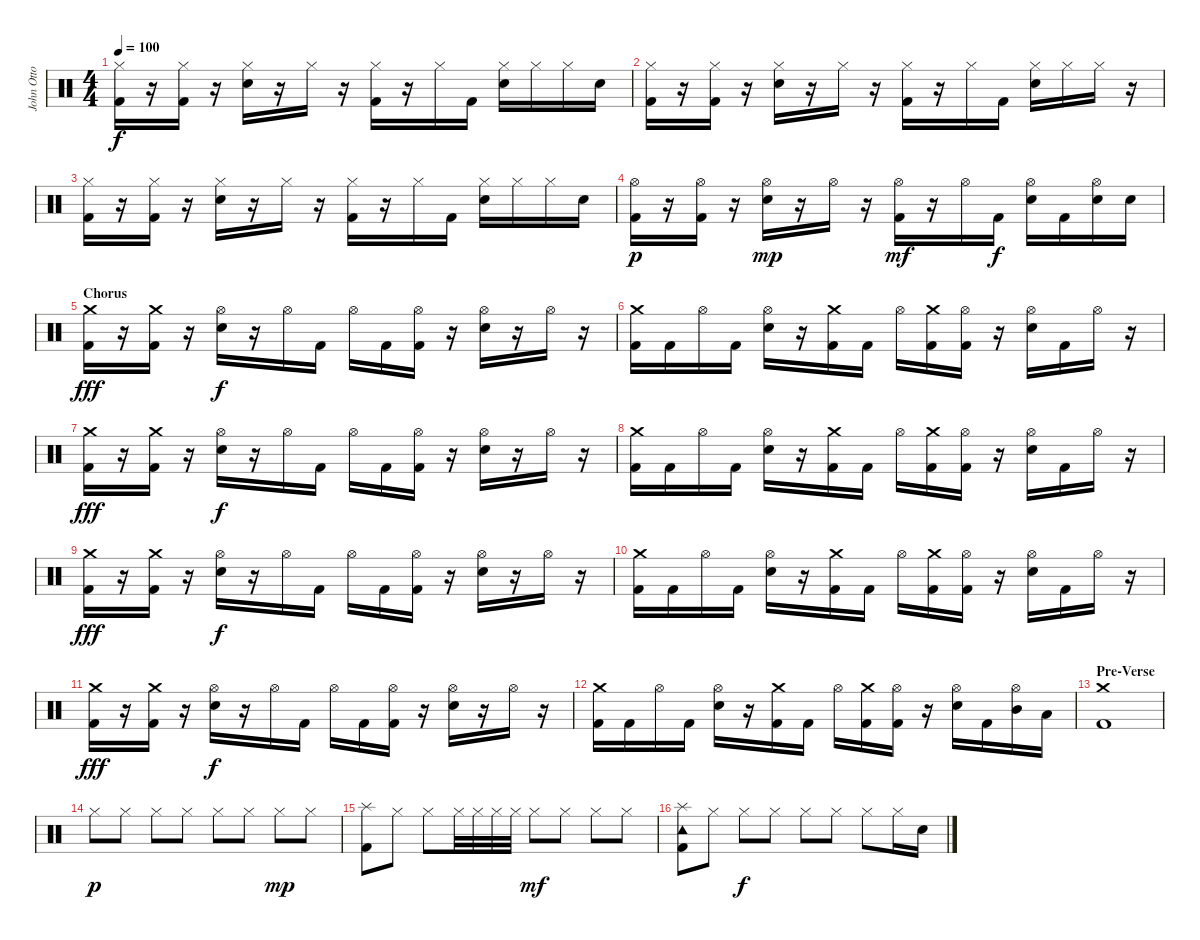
\track ("John Otto - Drums" "John Otto ") {instrument percussion}
\staff {score}
\articulation defaults
\ts (4 4)
\tempo 100
\clef neutral
\ks c
("Hi-Hat (closed)" "Kick (hit) 2").16{dy f} r.16 ("Hi-Hat (closed)" "Kick (hit) 2").16 r.16 ("Hi-Hat (closed)" "Electric Snare (hit)").16 r.16 "Hi-Hat (closed)".16 r.16 ("Hi-Hat (closed)" "Kick (hit) 2").16 r.16 "Hi-Hat (closed)".16 "Kick (hit) 2".16 ("Hi-Hat (closed)" "Electric Snare (hit)").16 "Hi-Hat (closed)".16 "Hi-Hat (closed)".16 "Electric Snare (hit)".16 |
("Hi-Hat (closed)" "Kick (hit) 2").16 r.16 ("Hi-Hat (closed)" "Kick (hit) 2").16 r.16 ("Hi-Hat (closed)" "Electric Snare (hit)").16 r.16 "Hi-Hat (closed)".16 r.16 ("Hi-Hat (closed)" "Kick (hit) 2").16 r.16 "Hi-Hat (closed)".16 "Kick (hit) 2".16 ("Hi-Hat (closed)" "Electric Snare (hit)").16 "Hi-Hat (closed)".16 "Hi-Hat (closed)".16 r.16 |
("Hi-Hat (closed)" "Kick (hit) 2").16 r.16 ("Hi-Hat (closed)" "Kick (hit) 2").16 r.16 ("Hi-Hat (closed)" "Electric Snare (hit)").16 r.16 "Hi-Hat (closed)".16 r.16 ("Hi-Hat (closed)" "Kick (hit) 2").16 r.16 "Hi-Hat (closed)".16 "Kick (hit) 2".16 ("Hi-Hat (closed)" "Electric Snare (hit)").16 "Hi-Hat (closed)".16 "Hi-Hat (closed)".16 "Electric Snare (hit)".16 |
("Hi-Hat (open)" "Kick (hit) 2").16{dy p} r.16 ("Hi-Hat (open)" "Kick (hit) 2").16 r.16 ("Hi-Hat (open)" "Electric Snare (hit)").16{dy mp} r.16 "Hi-Hat (open)".16 r.16 ("Hi-Hat (open)" "Kick (hit) 2").16{dy mf} r.16 "Hi-Hat (open)".16 "Kick (hit) 2".16{dy f} ("Hi-Hat (open)" "Electric Snare (hit)").16 "Kick (hit) 2".16 ("Hi-Hat (open)" "Electric Snare (hit)").16 "Electric Snare (hit)".16 |
\section ("" "Chorus")
("Crash medium (hit)" "Kick (hit) 2").16{dy fff} r.16 ("Crash medium (hit)" "Kick (hit) 2").16 r.16 ("Hi-Hat (open)" "Electric Snare (hit)").16{dy f} r.16 "Hi-Hat (open)".16 "Kick (hit) 2".16 "Hi-Hat (open)".16 "Kick (hit) 2".16 ("Hi-Hat (open)" "Kick (hit) 2").16 r.16 ("Hi-Hat (open)" "Electric Snare (hit)").16 r.16 "Hi-Hat (open)".16 r.16 |
("Crash medium (hit)" "Kick (hit) 2").16 "Kick (hit) 2".16 "Hi-Hat (open)".16 "Kick (hit) 2".16 ("Hi-Hat (open)" "Electric Snare (hit)").16 r.16 ("Crash medium (hit)" "Kick (hit) 2").16 "Kick (hit) 2".16 "Hi-Hat (open)".16 ("Crash medium (hit)" "Kick (hit) 2").16 ("Hi-Hat (open)" "Kick (hit) 2").16 r.16 ("Hi-Hat (open)" "Electric Snare (hit)").16 "Kick (hit) 2".16 "Hi-Hat (open)".16 r.16 |
("Crash medium (hit)" "Kick (hit) 2").16{dy fff} r.16 ("Crash medium (hit)" "Kick (hit) 2").16 r.16 ("Hi-Hat (open)" "Electric Snare (hit)").16{dy f} r.16 "Hi-Hat (open)".16 "Kick (hit) 2".16 "Hi-Hat (open)".16 "Kick (hit) 2".16 ("Hi-Hat (open)" "Kick (hit) 2").16 r.16 ("Hi-Hat (open)" "Electric Snare (hit)").16 r.16 "Hi-Hat (open)".16 r.16 |
("Crash medium (hit)" "Kick (hit) 2").16 "Kick (hit) 2".16 "Hi-Hat (open)".16 "Kick (hit) 2".16 ("Hi-Hat (open)" "Electric Snare (hit)").16 r.16 ("Crash medium (hit)" "Kick (hit) 2").16 "Kick (hit) 2".16 "Hi-Hat (open)".16 ("Crash medium (hit)" "Kick (hit) 2").16 ("Hi-Hat (open)" "Kick (hit) 2").16 r.16 ("Hi-Hat (open)" "Electric Snare (hit)").16 "Kick (hit) 2".16 "Hi-Hat (open)".16 r.16 |
("Crash medium (hit)" "Kick (hit) 2").16{dy fff} r.16 ("Crash medium (hit)" "Kick (hit) 2").16 r.16 ("Hi-Hat (open)" "Electric Snare (hit)").16{dy f} r.16 "Hi-Hat (open)".16 "Kick (hit) 2".16 "Hi-Hat (open)".16 "Kick (hit) 2".16 ("Hi-Hat (open)" "Kick (hit) 2").16 r.16 ("Hi-Hat (open)" "Electric Snare (hit)").16 r.16 "Hi-Hat (open)".16 r.16 |
("Crash medium (hit)" "Kick (hit) 2").16 "Kick (hit) 2".16 "Hi-Hat (open)".16 "Kick (hit) 2".16 ("Hi-Hat (open)" "Electric Snare (hit)").16 r.16 ("Crash medium (hit)" "Kick (hit) 2").16 "Kick (hit) 2".16 "Hi-Hat (open)".16 ("Crash medium (hit)" "Kick (hit) 2").16 ("Hi-Hat (open)" "Kick (hit) 2").16 r.16 ("Hi-Hat (open)" "Electric Snare (hit)").16 "Kick (hit) 2".16 "Hi-Hat (open)".16 r.16 |
("Crash medium (hit)" "Kick (hit) 2").16{dy fff} r.16 ("Crash medium (hit)" "Kick (hit) 2").16 r.16 ("Hi-Hat (open)" "Electric Snare (hit)").16{dy f} r.16 "Hi-Hat (open)".16 "Kick (hit) 2".16 "Hi-Hat (open)".16 "Kick (hit) 2".16 ("Hi-Hat (open)" "Kick (hit) 2").16 r.16 ("Hi-Hat (open)" "Electric Snare (hit)").16 r.16 "Hi-Hat (open)".16 r.16 |
("Crash medium (hit)" "Kick (hit) 2").16 "Kick (hit) 2".16 "Hi-Hat (open)".16 "Kick (hit) 2".16 ("Hi-Hat (open)" "Electric Snare (hit)").16 r.16 ("Crash medium (hit)" "Kick (hit) 2").16 "Kick (hit) 2".16 "Hi-Hat (open)".16 ("Crash medium (hit)" "Kick (hit) 2").16 ("Hi-Hat (open)" "Kick (hit) 2").16 r.16 ("Hi-Hat (open)" "Electric Snare (hit)").16 "Kick (hit) 2".16 ("Hi-Hat (open)" "Mid Tom (hit)").16 "Low Tom (hit)".16 |
\section ("" "Pre-Verse")
("Crash medium (hit)" "Kick (hit) 2").1 |
"Hi-Hat (closed)".8{dy p} "Hi-Hat (closed)".8 "Hi-Hat (closed)".8 "Hi-Hat (closed)".8 "Hi-Hat (closed)".8 "Hi-Hat (closed)".8 "Hi-Hat (closed)".8{dy mp} "Hi-Hat (closed)".8 |
("Splash (hit)" "Kick (hit) 2").8 "Hi-Hat (closed)".8 "Hi-Hat (closed)".8 "Hi-Hat (closed)".32 "Hi-Hat (closed)".32 "Hi-Hat (closed)".32 "Hi-Hat (closed)".32 "Hi-Hat (closed)".8{dy mf} "Hi-Hat (closed)".8 "Hi-Hat (closed)".8 "Hi-Hat (closed)".8 |
("Splash (hit)" "Tambourine (hit)" "Kick (hit) 2").8 "Hi-Hat (closed)".8 "Hi-Hat (closed)".8{dy f} "Hi-Hat (closed)".8 "Hi-Hat (closed)".8 "Hi-Hat (closed)".8 "Hi-Hat (closed)".8 "Hi-Hat (closed)".16 "Electric Snare (hit)".16
